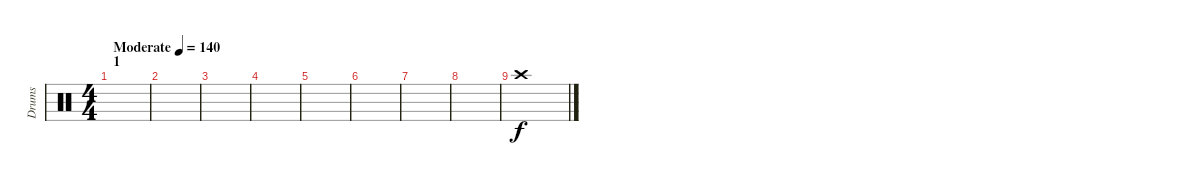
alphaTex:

\track ("Drums" "Drums") {instrument percussion}
\staff {score}
\articulation defaults
\ts (4 4)
\section ("" "1")
\tempo (140 "Moderate")
\clef neutral
\ks c
|
|
|
|
|
|
|
|
"Crash high (hit)".1
